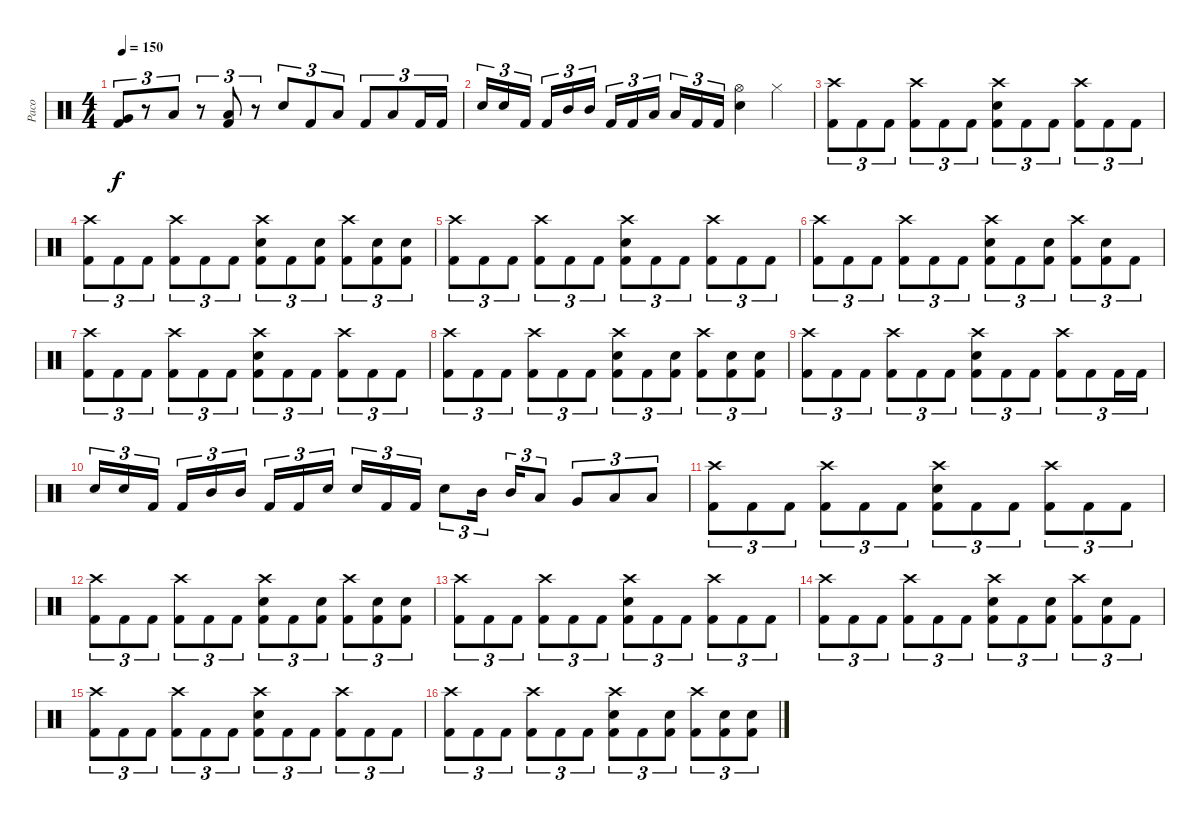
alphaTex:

\track ("Paco" "Paco") {instrument percussion}
\staff {score}
\articulation defaults
\ts (4 4)
\tempo 150
\clef neutral
\ks c
("Very Low Tom (hit)" "Kick (hit) 2").8{tu (3 2) dy f} r.8{tu (3 2)} "Low Floor Tom (hit)".8{tu (3 2)} r.8{tu (3 2)} ("Low Floor Tom (hit)" "Kick (hit) 2").8{tu (3 2)} r.8{tu (3 2)} "Electric Snare (hit)".8{tu (3 2)} "Kick (hit) 2".8{tu (3 2)} "Low Floor Tom (hit)".8{tu (3 2)} "Kick (hit) 2".8{tu (3 2)} "Low Floor Tom (hit)".8{tu (3 2)} "Kick (hit) 2".16{tu (3 2)} "Kick (hit) 2".16{tu (3 2)} |
"Electric Snare (hit)".16{tu (3 2)} "Electric Snare (hit)".16{tu (3 2)} "Kick (hit) 2".16{tu (3 2) beam splitsecondary} "Kick (hit) 2".16{tu (3 2)} "Mid Tom (hit)".16{tu (3 2)} "Mid Tom (hit)".16{tu (3 2)} "Kick (hit) 2".16{tu (3 2)} "Kick (hit) 2".16{tu (3 2)} "Low Tom (hit)".16{tu (3 2) beam splitsecondary} "Low Tom (hit)".16{tu (3 2)} "Kick (hit) 2".16{tu (3 2)} "Kick (hit) 2".16{tu (3 2)} ("Hi-Hat (open)" "Electric Snare (hit)").4 "Hi-Hat (closed)".4 |
("Crash high (hit)" "Kick (hit) 2").8{tu (3 2)} "Kick (hit) 2".8{tu (3 2)} "Kick (hit) 2".8{tu (3 2)} ("Crash high (hit)" "Kick (hit) 2").8{tu (3 2)} "Kick (hit) 2".8{tu (3 2)} "Kick (hit) 2".8{tu (3 2)} ("Crash high (hit)" "Electric Snare (hit)" "Kick (hit) 2").8{tu (3 2)} "Kick (hit) 2".8{tu (3 2)} "Kick (hit) 2".8{tu (3 2)} ("Crash high (hit)" "Kick (hit) 2").8{tu (3 2)} "Kick (hit) 2".8{tu (3 2)} "Kick (hit) 2".8{tu (3 2)} |
("Crash high (hit)" "Kick (hit) 2").8{tu (3 2)} "Kick (hit) 2".8{tu (3 2)} "Kick (hit) 2".8{tu (3 2)} ("Crash high (hit)" "Kick (hit) 2").8{tu (3 2)} "Kick (hit) 2".8{tu (3 2)} "Kick (hit) 2".8{tu (3 2)} ("Crash high (hit)" "Electric Snare (hit)" "Kick (hit) 2").8{tu (3 2)} "Kick (hit) 2".8{tu (3 2)} ("Electric Snare (hit)" "Kick (hit) 2").8{tu (3 2)} ("Crash high (hit)" "Kick (hit) 2").8{tu (3 2)} ("Electric Snare (hit)" "Kick (hit) 2").8{tu (3 2)} ("Electric Snare (hit)" "Kick (hit) 2").8{tu (3 2)} |
("Crash high (hit)" "Kick (hit) 2").8{tu (3 2)} "Kick (hit) 2".8{tu (3 2)} "Kick (hit) 2".8{tu (3 2)} ("Crash high (hit)" "Kick (hit) 2").8{tu (3 2)} "Kick (hit) 2".8{tu (3 2)} "Kick (hit) 2".8{tu (3 2)} ("Crash high (hit)" "Electric Snare (hit)" "Kick (hit) 2").8{tu (3 2)} "Kick (hit) 2".8{tu (3 2)} "Kick (hit) 2".8{tu (3 2)} ("Crash high (hit)" "Kick (hit) 2").8{tu (3 2)} "Kick (hit) 2".8{tu (3 2)} "Kick (hit) 2".8{tu (3 2)} |
("Crash high (hit)" "Kick (hit) 2").8{tu (3 2)} "Kick (hit) 2".8{tu (3 2)} "Kick (hit) 2".8{tu (3 2)} ("Crash high (hit)" "Kick (hit) 2").8{tu (3 2)} "Kick (hit) 2".8{tu (3 2)} "Kick (hit) 2".8{tu (3 2)} ("Crash high (hit)" "Electric Snare (hit)" "Kick (hit) 2").8{tu (3 2)} "Kick (hit) 2".8{tu (3 2)} ("Electric Snare (hit)" "Kick (hit) 2").8{tu (3 2)} ("Crash high (hit)" "Kick (hit) 2").8{tu (3 2)} ("Electric Snare (hit)" "Kick (hit) 2").8{tu (3 2)} "Kick (hit) 2".8{tu (3 2)} |
("Crash high (hit)" "Kick (hit) 2").8{tu (3 2)} "Kick (hit) 2".8{tu (3 2)} "Kick (hit) 2".8{tu (3 2)} ("Crash high (hit)" "Kick (hit) 2").8{tu (3 2)} "Kick (hit) 2".8{tu (3 2)} "Kick (hit) 2".8{tu (3 2)} ("Crash high (hit)" "Electric Snare (hit)" "Kick (hit) 2").8{tu (3 2)} "Kick (hit) 2".8{tu (3 2)} "Kick (hit) 2".8{tu (3 2)} ("Crash high (hit)" "Kick (hit) 2").8{tu (3 2)} "Kick (hit) 2".8{tu (3 2)} "Kick (hit) 2".8{tu (3 2)} |
("Crash high (hit)" "Kick (hit) 2").8{tu (3 2)} "Kick (hit) 2".8{tu (3 2)} "Kick (hit) 2".8{tu (3 2)} ("Crash high (hit)" "Kick (hit) 2").8{tu (3 2)} "Kick (hit) 2".8{tu (3 2)} "Kick (hit) 2".8{tu (3 2)} ("Crash high (hit)" "Electric Snare (hit)" "Kick (hit) 2").8{tu (3 2)} "Kick (hit) 2".8{tu (3 2)} ("Electric Snare (hit)" "Kick (hit) 2").8{tu (3 2)} ("Crash high (hit)" "Kick (hit) 2").8{tu (3 2)} ("Electric Snare (hit)" "Kick (hit) 2").8{tu (3 2)} ("Electric Snare (hit)" "Kick (hit) 2").8{tu (3 2)} |
("Crash high (hit)" "Kick (hit) 2").8{tu (3 2)} "Kick (hit) 2".8{tu (3 2)} "Kick (hit) 2".8{tu (3 2)} ("Crash high (hit)" "Kick (hit) 2").8{tu (3 2)} "Kick (hit) 2".8{tu (3 2)} "Kick (hit) 2".8{tu (3 2)} ("Crash high (hit)" "Electric Snare (hit)" "Kick (hit) 2").8{tu (3 2)} "Kick (hit) 2".8{tu (3 2)} "Kick (hit) 2".8{tu (3 2)} ("Crash high (hit)" "Kick (hit) 2").8{tu (3 2)} "Kick (hit) 2".8{tu (3 2)} "Kick (hit) 2".16{tu (3 2)} "Kick (hit) 2".16{tu (3 2)} |
"Electric Snare (hit)".16{tu (3 2)} "Electric Snare (hit)".16{tu (3 2)} "Kick (hit) 2".16{tu (3 2) beam splitsecondary} "Kick (hit) 2".16{tu (3 2)} "Mid Tom (hit)".16{tu (3 2)} "Mid Tom (hit)".16{tu (3 2)} "Kick (hit) 2".16{tu (3 2)} "Kick (hit) 2".16{tu (3 2)} "Electric Snare (hit)".16{tu (3 2) beam splitsecondary} "Electric Snare (hit)".16{tu (3 2)} "Kick (hit) 2".16{tu (3 2)} "Kick (hit) 2".16{tu (3 2)} "Electric Snare (hit)".8{tu (3 2)} "Mid Tom (hit)".16{tu (3 2) beam splitsecondary} "Mid Tom (hit)".16{tu (3 2)} "Low Tom (hit)".8{tu (3 2)} "Very Low Tom (hit)".8{tu (3 2)} "Low Floor Tom (hit)".8{tu (3 2)} "Low Floor Tom (hit)".8{tu (3 2)} |
("Crash high (hit)" "Kick (hit) 2").8{tu (3 2)} "Kick (hit) 2".8{tu (3 2)} "Kick (hit) 2".8{tu (3 2)} ("Crash high (hit)" "Kick (hit) 2").8{tu (3 2)} "Kick (hit) 2".8{tu (3 2)} "Kick (hit) 2".8{tu (3 2)} ("Crash high (hit)" "Electric Snare (hit)" "Kick (hit) 2").8{tu (3 2)} "Kick (hit) 2".8{tu (3 2)} "Kick (hit) 2".8{tu (3 2)} ("Crash high (hit)" "Kick (hit) 2").8{tu (3 2)} "Kick (hit) 2".8{tu (3 2)} "Kick (hit) 2".8{tu (3 2)} |
("Crash high (hit)" "Kick (hit) 2").8{tu (3 2)} "Kick (hit) 2".8{tu (3 2)} "Kick (hit) 2".8{tu (3 2)} ("Crash high (hit)" "Kick (hit) 2").8{tu (3 2)} "Kick (hit) 2".8{tu (3 2)} "Kick (hit) 2".8{tu (3 2)} ("Crash high (hit)" "Electric Snare (hit)" "Kick (hit) 2").8{tu (3 2)} "Kick (hit) 2".8{tu (3 2)} ("Electric Snare (hit)" "Kick (hit) 2").8{tu (3 2)} ("Crash high (hit)" "Kick (hit) 2").8{tu (3 2)} ("Electric Snare (hit)" "Kick (hit) 2").8{tu (3 2)} ("Electric Snare (hit)" "Kick (hit) 2").8{tu (3 2)} |
("Crash high (hit)" "Kick (hit) 2").8{tu (3 2)} "Kick (hit) 2".8{tu (3 2)} "Kick (hit) 2".8{tu (3 2)} ("Crash high (hit)" "Kick (hit) 2").8{tu (3 2)} "Kick (hit) 2".8{tu (3 2)} "Kick (hit) 2".8{tu (3 2)} ("Crash high (hit)" "Electric Snare (hit)" "Kick (hit) 2").8{tu (3 2)} "Kick (hit) 2".8{tu (3 2)} "Kick (hit) 2".8{tu (3 2)} ("Crash high (hit)" "Kick (hit) 2").8{tu (3 2)} "Kick (hit) 2".8{tu (3 2)} "Kick (hit) 2".8{tu (3 2)} |
("Crash high (hit)" "Kick (hit) 2").8{tu (3 2)} "Kick (hit) 2".8{tu (3 2)} "Kick (hit) 2".8{tu (3 2)} ("Crash high (hit)" "Kick (hit) 2").8{tu (3 2)} "Kick (hit) 2".8{tu (3 2)} "Kick (hit) 2".8{tu (3 2)} ("Crash high (hit)" "Electric Snare (hit)" "Kick (hit) 2").8{tu (3 2)} "Kick (hit) 2".8{tu (3 2)} ("Electric Snare (hit)" "Kick (hit) 2").8{tu (3 2)} ("Crash high (hit)" "Kick (hit) 2").8{tu (3 2)} ("Electric Snare (hit)" "Kick (hit) 2").8{tu (3 2)} "Kick (hit) 2".8{tu (3 2)} |
("Crash high (hit)" "Kick (hit) 2").8{tu (3 2)} "Kick (hit) 2".8{tu (3 2)} "Kick (hit) 2".8{tu (3 2)} ("Crash high (hit)" "Kick (hit) 2").8{tu (3 2)} "Kick (hit) 2".8{tu (3 2)} "Kick (hit) 2".8{tu (3 2)} ("Crash high (hit)" "Electric Snare (hit)" "Kick (hit) 2").8{tu (3 2)} "Kick (hit) 2".8{tu (3 2)} "Kick (hit) 2".8{tu (3 2)} ("Crash high (hit)" "Kick (hit) 2").8{tu (3 2)} "Kick (hit) 2".8{tu (3 2)} "Kick (hit) 2".8{tu (3 2)} |
("Crash high (hit)" "Kick (hit) 2").8{tu (3 2)} "Kick (hit) 2".8{tu (3 2)} "Kick (hit) 2".8{tu (3 2)} ("Crash high (hit)" "Kick (hit) 2").8{tu (3 2)} "Kick (hit) 2".8{tu (3 2)} "Kick (hit) 2".8{tu (3 2)} ("Crash high (hit)" "Electric Snare (hit)" "Kick (hit) 2").8{tu (3 2)} "Kick (hit) 2".8{tu (3 2)} ("Electric Snare (hit)" "Kick (hit) 2").8{tu (3 2)} ("Crash high (hit)" "Kick (hit) 2").8{tu (3 2)} ("Electric Snare (hit)" "Kick (hit) 2").8{tu (3 2)} ("Electric Snare (hit)" "Kick (hit) 2").8{tu (3 2)}
